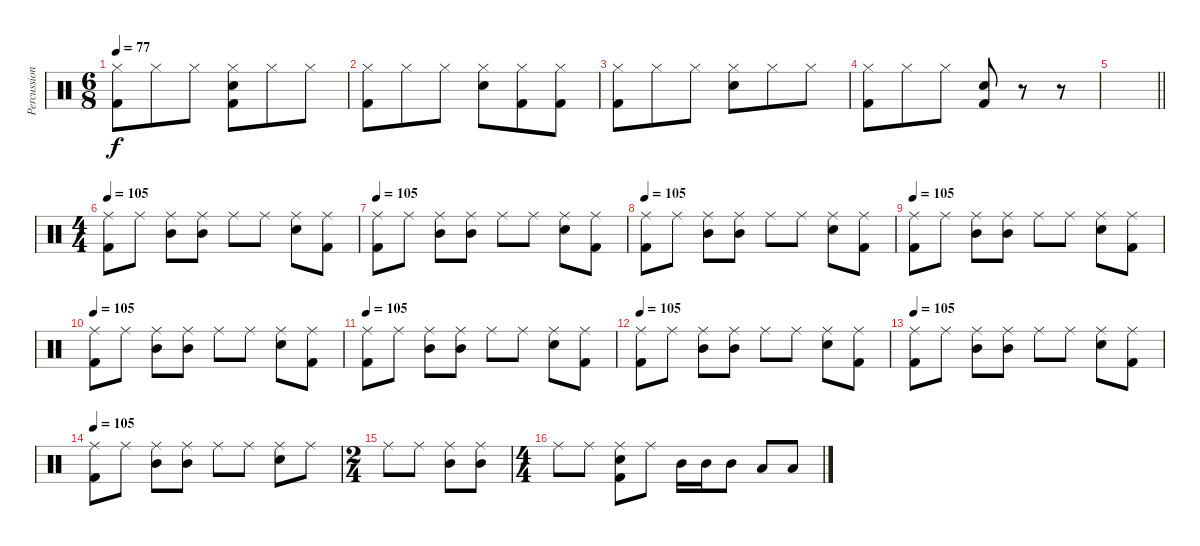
\track ("Percussion" "Percussion") {instrument percussion}
\staff {score}
\articulation defaults
\ts (6 8)
\tempo 77
\clef neutral
\ks c
("Hi-Hat (closed)" "Kick (hit) 2").8{dy f} "Hi-Hat (closed)".8 "Hi-Hat (closed)".8 ("Hi-Hat (closed)" "Snare (hit) 2" "Kick (hit) 2").8 "Hi-Hat (closed)".8 "Hi-Hat (closed)".8 |
("Hi-Hat (closed)" "Kick (hit) 2").8 "Hi-Hat (closed)".8 "Hi-Hat (closed)".8 ("Hi-Hat (closed)" "Snare (hit) 2").8 ("Hi-Hat (closed)" "Kick (hit) 2").8 ("Hi-Hat (closed)" "Kick (hit) 2").8 |
("Hi-Hat (closed)" "Kick (hit) 2").8 "Hi-Hat (closed)".8 "Hi-Hat (closed)".8 ("Hi-Hat (closed)" "Snare (hit) 2").8 "Hi-Hat (closed)".8 "Hi-Hat (closed)".8 |
("Hi-Hat (closed)" "Kick (hit) 2").8 "Hi-Hat (closed)".8 "Hi-Hat (closed)".8 ("Snare (hit) 2" "Kick (hit) 2").8 r.8 r.8 |
\barLineRight lightlight
|
\ts (4 4)
\tempo 105
("Ride (middle)" "Kick (hit) 2").8 "Ride (middle)".8 ("Ride (middle)" "Mid Tom (hit)").8 ("Ride (middle)" "Mid Tom (hit)").8 "Ride (middle)".8 "Ride (middle)".8 ("Ride (middle)" "Snare (hit) 2").8 ("Ride (middle)" "Kick (hit) 2").8 |
\tempo 105
("Ride (middle)" "Kick (hit) 2").8 "Ride (middle)".8 ("Ride (middle)" "Mid Tom (hit)").8 ("Ride (middle)" "Mid Tom (hit)").8 "Ride (middle)".8 "Ride (middle)".8 ("Ride (middle)" "Snare (hit) 2").8 ("Ride (middle)" "Kick (hit) 2").8 |
\tempo 105
("Ride (middle)" "Kick (hit) 2").8 "Ride (middle)".8 ("Ride (middle)" "Mid Tom (hit)").8 ("Ride (middle)" "Mid Tom (hit)").8 "Ride (middle)".8 "Ride (middle)".8 ("Ride (middle)" "Snare (hit) 2").8 ("Ride (middle)" "Kick (hit) 2").8 |
\tempo 105
("Ride (middle)" "Kick (hit) 2").8 "Ride (middle)".8 ("Ride (middle)" "Mid Tom (hit)").8 ("Ride (middle)" "Mid Tom (hit)").8 "Ride (middle)".8 "Ride (middle)".8 ("Ride (middle)" "Snare (hit) 2").8 ("Ride (middle)" "Kick (hit) 2").8 |
\tempo 105
("Ride (middle)" "Kick (hit) 2").8 "Ride (middle)".8 ("Ride (middle)" "Mid Tom (hit)").8 ("Ride (middle)" "Mid Tom (hit)").8 "Ride (middle)".8 "Ride (middle)".8 ("Ride (middle)" "Snare (hit) 2").8 ("Ride (middle)" "Kick (hit) 2").8 |
\tempo 105
("Ride (middle)" "Kick (hit) 2").8 "Ride (middle)".8 ("Ride (middle)" "Mid Tom (hit)").8 ("Ride (middle)" "Mid Tom (hit)").8 "Ride (middle)".8 "Ride (middle)".8 ("Ride (middle)" "Snare (hit) 2").8 ("Ride (middle)" "Kick (hit) 2").8 |
\tempo 105
("Ride (middle)" "Kick (hit) 2").8 "Ride (middle)".8 ("Ride (middle)" "Mid Tom (hit)").8 ("Ride (middle)" "Mid Tom (hit)").8 "Ride (middle)".8 "Ride (middle)".8 ("Ride (middle)" "Snare (hit) 2").8 ("Ride (middle)" "Kick (hit) 2").8 |
\tempo 105
("Ride (middle)" "Kick (hit) 2").8 "Ride (middle)".8 ("Ride (middle)" "Mid Tom (hit)").8 ("Ride (middle)" "Mid Tom (hit)").8 "Ride (middle)".8 "Ride (middle)".8 ("Ride (middle)" "Snare (hit) 2").8 ("Ride (middle)" "Kick (hit) 2").8 |
\tempo 105
("Ride (middle)" "Kick (hit) 2").8 "Ride (middle)".8 ("Ride (middle)" "Mid Tom (hit)").8 ("Ride (middle)" "Mid Tom (hit)").8 "Ride (middle)".8 "Ride (middle)".8 ("Ride (middle)" "Snare (hit) 2").8 "Ride (middle)".8 |
\ts (2 4)
"Ride (middle)".8 "Ride (middle)".8 ("Ride (middle)" "Mid Tom (hit)").8 ("Ride (middle)" "Mid Tom (hit)").8 |
\ts (4 4)
"Ride (middle)".8 "Ride (middle)".8 ("Ride (middle)" "Snare (hit) 2" "Kick (hit) 2").8 "Ride (middle)".8 "Mid Tom (hit)".16 "Mid Tom (hit)".16 "Mid Tom (hit)".8 "Low Floor Tom (hit)".8 "Low Floor Tom (hit)".8
